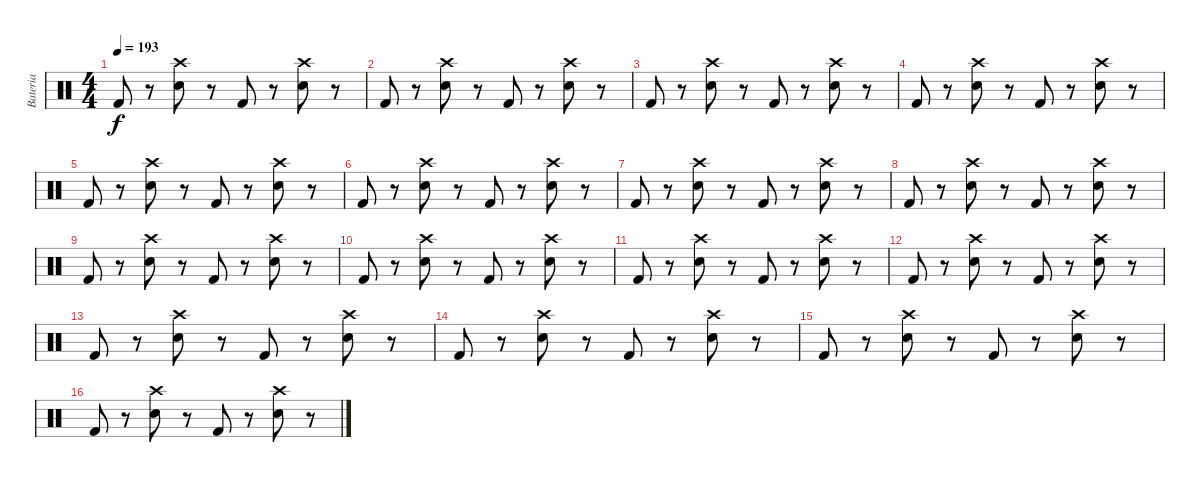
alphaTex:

\track ("Bateria" "Bateria") {instrument percussion}
\staff {score}
\articulation defaults
\ts (4 4)
\tempo 193
\clef neutral
\ks c "Kick (hit) 2".8{dy f}
r.8 ("Electric Snare (hit)" "Crash high (hit)").8 r.8 "Kick (hit) 2".8 r.8 ("Electric Snare (hit)" "Crash high (hit)").8 r.8 |
"Kick (hit) 2".8 r.8 ("Electric Snare (hit)" "Crash high (hit)").8 r.8 "Kick (hit) 2".8 r.8 ("Electric Snare (hit)" "Crash high (hit)").8 r.8 |
"Kick (hit) 2".8 r.8 ("Electric Snare (hit)" "Crash high (hit)").8 r.8 "Kick (hit) 2".8 r.8 ("Electric Snare (hit)" "Crash high (hit)").8 r.8 |
"Kick (hit) 2".8 r.8 ("Electric Snare (hit)" "Crash high (hit)").8 r.8 "Kick (hit) 2".8 r.8 ("Electric Snare (hit)" "Crash high (hit)").8 r.8 |
"Kick (hit) 2".8 r.8 ("Electric Snare (hit)" "Crash high (hit)").8 r.8 "Kick (hit) 2".8 r.8 ("Electric Snare (hit)" "Crash high (hit)").8 r.8 |
"Kick (hit) 2".8 r.8 ("Electric Snare (hit)" "Crash high (hit)").8 r.8 "Kick (hit) 2".8 r.8 ("Electric Snare (hit)" "Crash high (hit)").8 r.8 |
"Kick (hit) 2".8 r.8 ("Electric Snare (hit)" "Crash high (hit)").8 r.8 "Kick (hit) 2".8 r.8 ("Electric Snare (hit)" "Crash high (hit)").8 r.8 |
"Kick (hit) 2".8 r.8 ("Electric Snare (hit)" "Crash high (hit)").8 r.8 "Kick (hit) 2".8 r.8 ("Electric Snare (hit)" "Crash high (hit)").8 r.8 |
"Kick (hit) 2".8 r.8 ("Electric Snare (hit)" "Crash high (hit)").8 r.8 "Kick (hit) 2".8 r.8 ("Electric Snare (hit)" "Crash high (hit)").8 r.8 |
"Kick (hit) 2".8 r.8 ("Electric Snare (hit)" "Crash high (hit)").8 r.8 "Kick (hit) 2".8 r.8 ("Electric Snare (hit)" "Crash high (hit)").8 r.8 |
"Kick (hit) 2".8 r.8 ("Electric Snare (hit)" "Crash high (hit)").8 r.8 "Kick (hit) 2".8 r.8 ("Electric Snare (hit)" "Crash high (hit)").8 r.8 |
"Kick (hit) 2".8 r.8 ("Electric Snare (hit)" "Crash high (hit)").8 r.8 "Kick (hit) 2".8 r.8 ("Electric Snare (hit)" "Crash high (hit)").8 r.8 |
"Kick (hit) 2".8 r.8 ("Electric Snare (hit)" "Crash high (hit)").8 r.8 "Kick (hit) 2".8 r.8 ("Electric Snare (hit)" "Crash high (hit)").8 r.8 |
"Kick (hit) 2".8 r.8 ("Electric Snare (hit)" "Crash high (hit)").8 r.8 "Kick (hit) 2".8 r.8 ("Electric Snare (hit)" "Crash high (hit)").8 r.8 |
"Kick (hit) 2".8 r.8 ("Electric Snare (hit)" "Crash high (hit)").8 r.8 "Kick (hit) 2".8 r.8 ("Electric Snare (hit)" "Crash high (hit)").8 r.8 |
"Kick (hit) 2".8 r.8 ("Electric Snare (hit)" "Crash high (hit)").8 r.8 "Kick (hit) 2".8 r.8 ("Electric Snare (hit)" "Crash high (hit)").8 r.8
